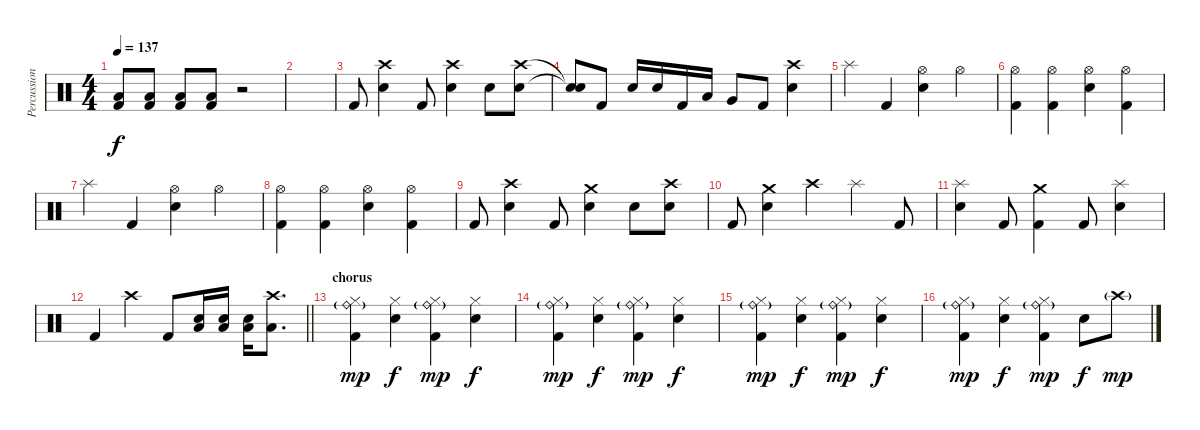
\track ("Percussion" "Percussion") {instrument percussion}
\staff {score}
\articulation defaults
\ts (4 4)
\tempo 137
\clef neutral
\ks c
("Low Floor Tom (hit)" "Kick (hit) 2").8{dy f} ("Low Floor Tom (hit)" "Kick (hit) 2").8 ("Low Floor Tom (hit)" "Kick (hit) 2").8 ("Low Floor Tom (hit)" "Kick (hit) 2").8 r.2 |
|
"Kick (hit) 2".8 ("Crash high (hit)" "Snare (hit) 2").4 "Kick (hit) 2".8 ("Crash high (hit)" "Snare (hit) 2").4 "Snare (hit) 2".8 ("Crash high (hit)" "Snare (hit) 2").8 |
("Snare (hit)"{t} "Snare (hit)"{t}).8 "Kick (hit) 2".8 "Snare (hit) 2".16 "Snare (hit) 2".16 "Kick (hit) 2".16 "Low Floor Tom (hit)".16 "Very Low Tom (hit)".8 "Kick (hit) 2".8 ("Crash high (hit)" "Snare (hit) 2").4 |
"Splash (hit)".4 "Kick (hit) 2".4 ("Hi-Hat (open)" "Snare (hit) 2").4 "Hi-Hat (open)".4 |
("Hi-Hat (open)" "Kick (hit) 2").4 ("Hi-Hat (open)" "Kick (hit) 2").4 ("Hi-Hat (open)" "Snare (hit) 2").4 ("Hi-Hat (open)" "Kick (hit) 2").4 |
"Splash (hit)".4 "Kick (hit) 2".4 ("Hi-Hat (open)" "Snare (hit) 2").4 "Hi-Hat (open)".4 |
("Hi-Hat (open)" "Kick (hit) 2").4 ("Hi-Hat (open)" "Kick (hit) 2").4 ("Hi-Hat (open)" "Snare (hit) 2").4 ("Hi-Hat (open)" "Kick (hit) 2").4 |
"Kick (hit) 2".8 ("Crash high (hit)" "Snare (hit) 2").4 "Kick (hit) 2".8 ("Crash medium (hit)" "Snare (hit) 2").4 "Snare (hit) 2".8 ("Crash high (hit)" "Snare (hit) 2").8 |
"Kick (hit) 2".8 ("Crash medium (hit)" "Snare (hit) 2").4 "Crash high (hit)".4 "Splash (hit)".4 "Kick (hit) 2".8 |
("Splash (hit)" "Snare (hit) 2").4 "Kick (hit) 2".8 ("Crash medium (hit)" "Kick (hit) 2").4 "Kick (hit) 2".8 ("Splash (hit)" "Snare (hit) 2").4 |
\barLineRight lightlight "Kick (hit) 2".4 "Crash high (hit)".4 "Kick (hit) 2".8
("Low Floor Tom (hit)" "Snare (hit) 2").16 ("Low Floor Tom (hit)" "Snare (hit) 2").16 ("Low Floor Tom (hit)" "Snare (hit) 2").16 ("Crash high (hit)" "Low Floor Tom (hit)").8{d} |
\section ("" "chorus")
("Hi-Hat (closed)" "Ride (bell)"{g} "Kick (hit) 2").4{dy mp} ("Hi-Hat (closed)" "Snare (hit) 2").4{dy f} ("Hi-Hat (closed)" "Ride (bell)"{g} "Kick (hit) 2").4{dy mp} ("Hi-Hat (closed)" "Snare (hit) 2").4{dy f} |
("Hi-Hat (closed)" "Ride (bell)"{g} "Kick (hit) 2").4{dy mp} ("Hi-Hat (closed)" "Snare (hit) 2").4{dy f} ("Hi-Hat (closed)" "Ride (bell)"{g} "Kick (hit) 2").4{dy mp} ("Hi-Hat (closed)" "Snare (hit) 2").4{dy f} |
("Hi-Hat (closed)" "Ride (bell)"{g} "Kick (hit) 2").4{dy mp} ("Hi-Hat (closed)" "Snare (hit) 2").4{dy f} ("Hi-Hat (closed)" "Ride (bell)"{g} "Kick (hit) 2").4{dy mp} ("Hi-Hat (closed)" "Snare (hit) 2").4{dy f} |
("Hi-Hat (closed)" "Ride (bell)"{g} "Kick (hit) 2").4{dy mp} ("Hi-Hat (closed)" "Snare (hit) 2").4{dy f} ("Hi-Hat (closed)" "Ride (bell)"{g} "Kick (hit) 2").4{dy mp} "Snare (hit) 2".8{dy f} "Crash high (hit)"{g}.8{dy mp}
